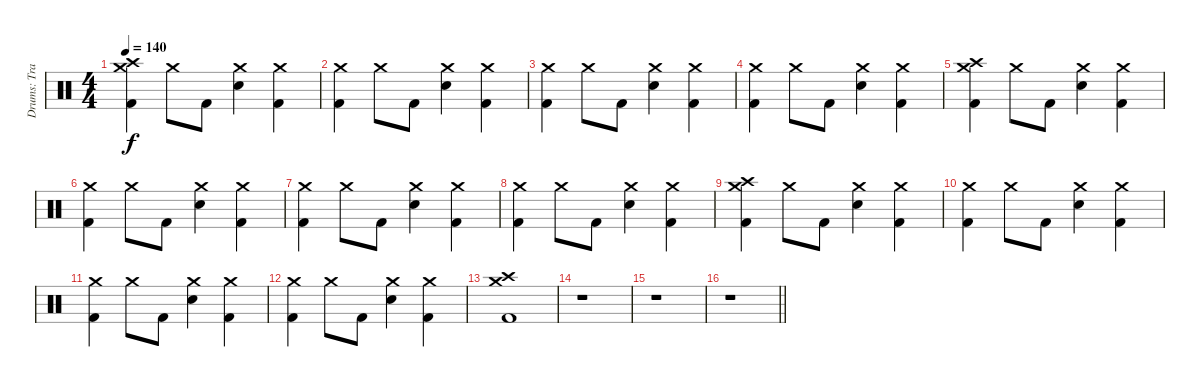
\track ("Drums: Travis Clarke" "Drums: Tra") {instrument percussion}
\staff {score}
\articulation defaults
\ts (4 4)
\tempo 140
\clef neutral
\ks c
("Kick (hit) 2" "Crash high (hit)" "Crash medium (hit)").4{dy f} "Crash medium (hit)".8 "Kick (hit) 2".8 ("Snare (hit) 2" "Crash medium (hit)").4 ("Kick (hit) 2" "Crash medium (hit)").4 |
("Kick (hit) 2" "Crash medium (hit)").4 "Crash medium (hit)".8 "Kick (hit) 2".8 ("Snare (hit) 2" "Crash medium (hit)").4 ("Kick (hit) 2" "Crash medium (hit)").4 |
("Kick (hit) 2" "Crash medium (hit)").4 "Crash medium (hit)".8 "Kick (hit) 2".8 ("Snare (hit) 2" "Crash medium (hit)").4 ("Kick (hit) 2" "Crash medium (hit)").4 |
("Kick (hit) 2" "Crash medium (hit)").4 "Crash medium (hit)".8 "Kick (hit) 2".8 ("Snare (hit) 2" "Crash medium (hit)").4 ("Kick (hit) 2" "Crash medium (hit)").4 |
("Kick (hit) 2" "Crash high (hit)" "Crash medium (hit)").4 "Crash medium (hit)".8 "Kick (hit) 2".8 ("Snare (hit) 2" "Crash medium (hit)").4 ("Kick (hit) 2" "Crash medium (hit)").4 |
("Kick (hit) 2" "Crash medium (hit)").4 "Crash medium (hit)".8 "Kick (hit) 2".8 ("Snare (hit) 2" "Crash medium (hit)").4 ("Kick (hit) 2" "Crash medium (hit)").4 |
("Kick (hit) 2" "Crash medium (hit)").4 "Crash medium (hit)".8 "Kick (hit) 2".8 ("Snare (hit) 2" "Crash medium (hit)").4 ("Kick (hit) 2" "Crash medium (hit)").4 |
("Kick (hit) 2" "Crash medium (hit)").4 "Crash medium (hit)".8 "Kick (hit) 2".8 ("Snare (hit) 2" "Crash medium (hit)").4 ("Kick (hit) 2" "Crash medium (hit)").4 |
("Kick (hit) 2" "Crash high (hit)" "Crash medium (hit)").4 "Crash medium (hit)".8 "Kick (hit) 2".8 ("Snare (hit) 2" "Crash medium (hit)").4 ("Kick (hit) 2" "Crash medium (hit)").4 |
("Kick (hit) 2" "Crash medium (hit)").4 "Crash medium (hit)".8 "Kick (hit) 2".8 ("Snare (hit) 2" "Crash medium (hit)").4 ("Kick (hit) 2" "Crash medium (hit)").4 |
("Kick (hit) 2" "Crash medium (hit)").4 "Crash medium (hit)".8 "Kick (hit) 2".8 ("Snare (hit) 2" "Crash medium (hit)").4 ("Kick (hit) 2" "Crash medium (hit)").4 |
("Kick (hit) 2" "Crash medium (hit)").4 "Crash medium (hit)".8 "Kick (hit) 2".8 ("Snare (hit) 2" "Crash medium (hit)").4 ("Kick (hit) 2" "Crash medium (hit)").4 |
("Kick (hit) 2" "Crash high (hit)" "Crash medium (hit)").1 |
r.1{volume 0} |
r.1 |
\barLineRight lightlight
r.1
